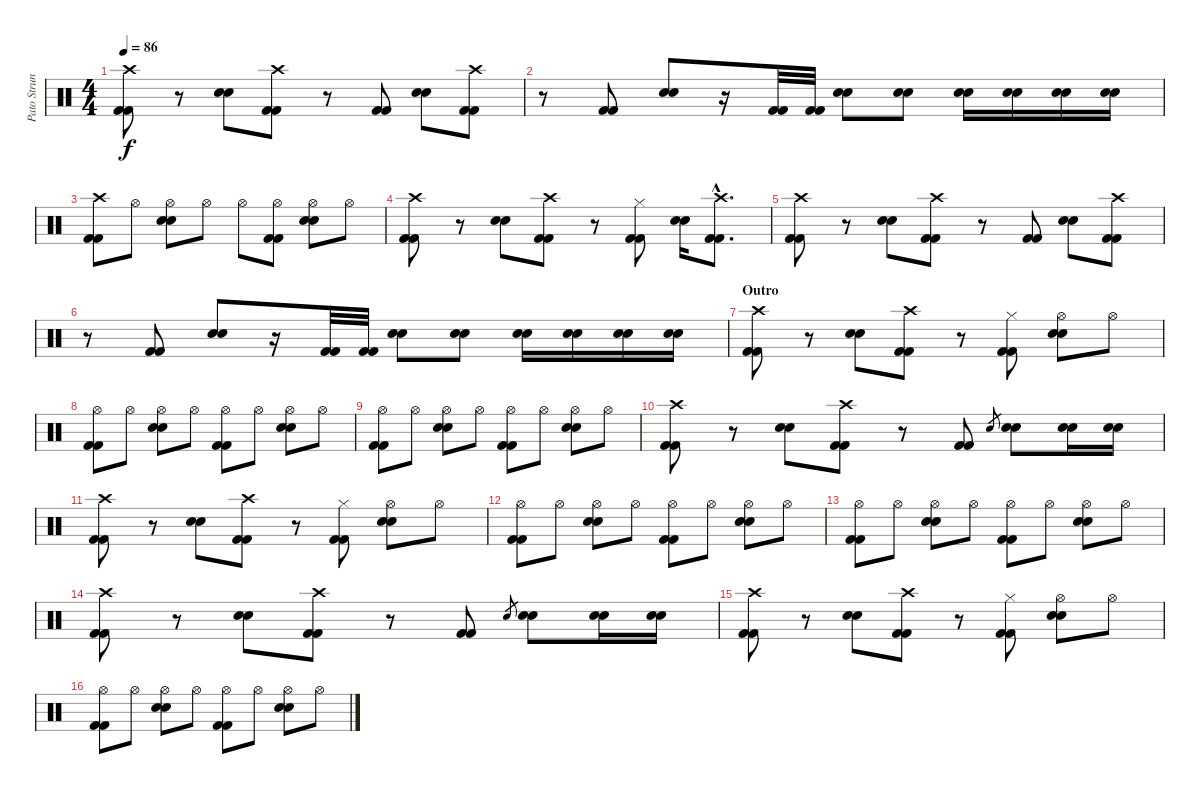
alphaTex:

\track ("Pato Strunz (Bateria)" "Pato Strun") {instrument percussion}
\staff {score}
\articulation defaults
\ts (4 4)
\tempo 86
\clef neutral
\ks c
("Crash high (hit)" "Kick (hit) 2" "Kick (hit) 2").8{dy f} r.8 ("Snare (hit) 2" "Snare (hit) 2").8 ("Crash high (hit)" "Kick (hit) 2" "Kick (hit) 2").8 r.8 ("Kick (hit) 2" "Kick (hit) 2").8 ("Snare (hit) 2" "Snare (hit) 2").8 ("Crash high (hit)" "Kick (hit) 2" "Kick (hit) 2").8 |
r.8 ("Kick (hit) 2" "Kick (hit) 2").8 ("Snare (hit) 2" "Snare (hit) 2").8 r.16 ("Kick (hit) 2" "Kick (hit) 2").32 ("Kick (hit) 2" "Kick (hit) 2").32 ("Snare (hit) 2" "Snare (hit) 2").8 ("Snare (hit) 2" "Snare (hit) 2").8 ("Snare (hit) 2" "Snare (hit) 2").16 ("Snare (hit) 2" "Snare (hit) 2").16 ("Snare (hit) 2" "Snare (hit) 2").16 ("Snare (hit) 2" "Snare (hit) 2").16 |
("Crash high (hit)" "Kick (hit) 2" "Kick (hit) 2").8 "Hi-Hat (open)".8 ("Hi-Hat (open)" "Snare (hit) 2" "Snare (hit) 2").8 "Hi-Hat (open)".8 "Hi-Hat (open)".8 ("Hi-Hat (open)" "Kick (hit) 2" "Kick (hit) 2").8 ("Hi-Hat (open)" "Snare (hit) 2" "Snare (hit) 2").8 "Hi-Hat (open)".8 |
("Crash high (hit)" "Kick (hit) 2" "Kick (hit) 2").8 r.8 ("Snare (hit) 2" "Snare (hit) 2").8 ("Crash high (hit)" "Kick (hit) 2" "Kick (hit) 2").8 r.8 ("Hi-Hat (closed)" "Kick (hit) 2" "Kick (hit) 2").8 ("Snare (hit) 2" "Snare (hit) 2").16 ("Crash high (hit)"{hac} "Kick (hit) 2"{hac} "Kick (hit) 2"{hac}).8{d} |
("Crash high (hit)" "Kick (hit) 2" "Kick (hit) 2").8 r.8 ("Snare (hit) 2" "Snare (hit) 2").8 ("Crash high (hit)" "Kick (hit) 2" "Kick (hit) 2").8 r.8 ("Kick (hit) 2" "Kick (hit) 2").8 ("Snare (hit) 2" "Snare (hit) 2").8 ("Crash high (hit)" "Kick (hit) 2" "Kick (hit) 2").8 |
r.8 ("Kick (hit) 2" "Kick (hit) 2").8 ("Snare (hit) 2" "Snare (hit) 2").8 r.16 ("Kick (hit) 2" "Kick (hit) 2").32 ("Kick (hit) 2" "Kick (hit) 2").32 ("Snare (hit) 2" "Snare (hit) 2").8 ("Snare (hit) 2" "Snare (hit) 2").8 ("Snare (hit) 2" "Snare (hit) 2").16 ("Snare (hit) 2" "Snare (hit) 2").16 ("Snare (hit) 2" "Snare (hit) 2").16 ("Snare (hit) 2" "Snare (hit) 2").16 |
\section ("" "Outro")
("Crash high (hit)" "Kick (hit) 2" "Kick (hit) 2").8{volume 10} r.8 ("Snare (hit) 2" "Snare (hit) 2").8 ("Crash high (hit)" "Kick (hit) 2" "Kick (hit) 2").8 r.8 ("Hi-Hat (closed)" "Kick (hit) 2" "Kick (hit) 2").8 ("Hi-Hat (open)" "Snare (hit) 2" "Snare (hit) 2").8 "Hi-Hat (open)".8 |
("Hi-Hat (open)" "Kick (hit) 2" "Kick (hit) 2").8 "Hi-Hat (open)".8 ("Hi-Hat (open)" "Snare (hit) 2" "Snare (hit) 2").8 "Hi-Hat (open)".8 ("Hi-Hat (open)" "Kick (hit) 2" "Kick (hit) 2").8 "Hi-Hat (open)".8 ("Hi-Hat (open)" "Snare (hit) 2" "Snare (hit) 2").8 "Hi-Hat (open)".8 |
("Hi-Hat (open)" "Kick (hit) 2" "Kick (hit) 2").8 "Hi-Hat (open)".8 ("Hi-Hat (open)" "Snare (hit) 2" "Snare (hit) 2").8 "Hi-Hat (open)".8 ("Hi-Hat (open)" "Kick (hit) 2" "Kick (hit) 2").8 "Hi-Hat (open)".8 ("Hi-Hat (open)" "Snare (hit) 2" "Snare (hit) 2").8 "Hi-Hat (open)".8 |
("Crash high (hit)" "Kick (hit) 2" "Kick (hit) 2").8 r.8 ("Snare (hit) 2" "Snare (hit) 2").8 ("Crash high (hit)" "Kick (hit) 2" "Kick (hit) 2").8 r.8 ("Kick (hit) 2" "Kick (hit) 2").8 "Snare (hit) 2".8{gr} ("Snare (hit) 2" "Snare (hit) 2").8 ("Snare (hit) 2" "Snare (hit) 2").16 ("Snare (hit) 2" "Snare (hit) 2").16 |
("Crash high (hit)" "Kick (hit) 2" "Kick (hit) 2").8{volume 7} r.8 ("Snare (hit) 2" "Snare (hit) 2").8 ("Crash high (hit)" "Kick (hit) 2" "Kick (hit) 2").8 r.8 ("Hi-Hat (closed)" "Kick (hit) 2" "Kick (hit) 2").8 ("Hi-Hat (open)" "Snare (hit) 2" "Snare (hit) 2").8 "Hi-Hat (open)".8 |
("Hi-Hat (open)" "Kick (hit) 2" "Kick (hit) 2").8 "Hi-Hat (open)".8 ("Hi-Hat (open)" "Snare (hit) 2" "Snare (hit) 2").8 "Hi-Hat (open)".8 ("Hi-Hat (open)" "Kick (hit) 2" "Kick (hit) 2").8 "Hi-Hat (open)".8 ("Hi-Hat (open)" "Snare (hit) 2" "Snare (hit) 2").8 "Hi-Hat (open)".8 |
("Hi-Hat (open)" "Kick (hit) 2" "Kick (hit) 2").8 "Hi-Hat (open)".8 ("Hi-Hat (open)" "Snare (hit) 2" "Snare (hit) 2").8 "Hi-Hat (open)".8 ("Hi-Hat (open)" "Kick (hit) 2" "Kick (hit) 2").8 "Hi-Hat (open)".8 ("Hi-Hat (open)" "Snare (hit) 2" "Snare (hit) 2").8 "Hi-Hat (open)".8 |
("Crash high (hit)" "Kick (hit) 2" "Kick (hit) 2").8 r.8 ("Snare (hit) 2" "Snare (hit) 2").8 ("Crash high (hit)" "Kick (hit) 2" "Kick (hit) 2").8 r.8 ("Kick (hit) 2" "Kick (hit) 2").8 "Snare (hit) 2".8{gr} ("Snare (hit) 2" "Snare (hit) 2").8 ("Snare (hit) 2" "Snare (hit) 2").16 ("Snare (hit) 2" "Snare (hit) 2").16 |
("Crash high (hit)" "Kick (hit) 2" "Kick (hit) 2").8{volume 0} r.8 ("Snare (hit) 2" "Snare (hit) 2").8 ("Crash high (hit)" "Kick (hit) 2" "Kick (hit) 2").8 r.8 ("Hi-Hat (closed)" "Kick (hit) 2" "Kick (hit) 2").8 ("Hi-Hat (open)" "Snare (hit) 2" "Snare (hit) 2").8 "Hi-Hat (open)".8 |
("Hi-Hat (open)" "Kick (hit) 2" "Kick (hit) 2").8 "Hi-Hat (open)".8 ("Hi-Hat (open)" "Snare (hit) 2" "Snare (hit) 2").8 "Hi-Hat (open)".8 ("Hi-Hat (open)" "Kick (hit) 2" "Kick (hit) 2").8 "Hi-Hat (open)".8 ("Hi-Hat (open)" "Snare (hit) 2" "Snare (hit) 2").8 "Hi-Hat (open)".8
